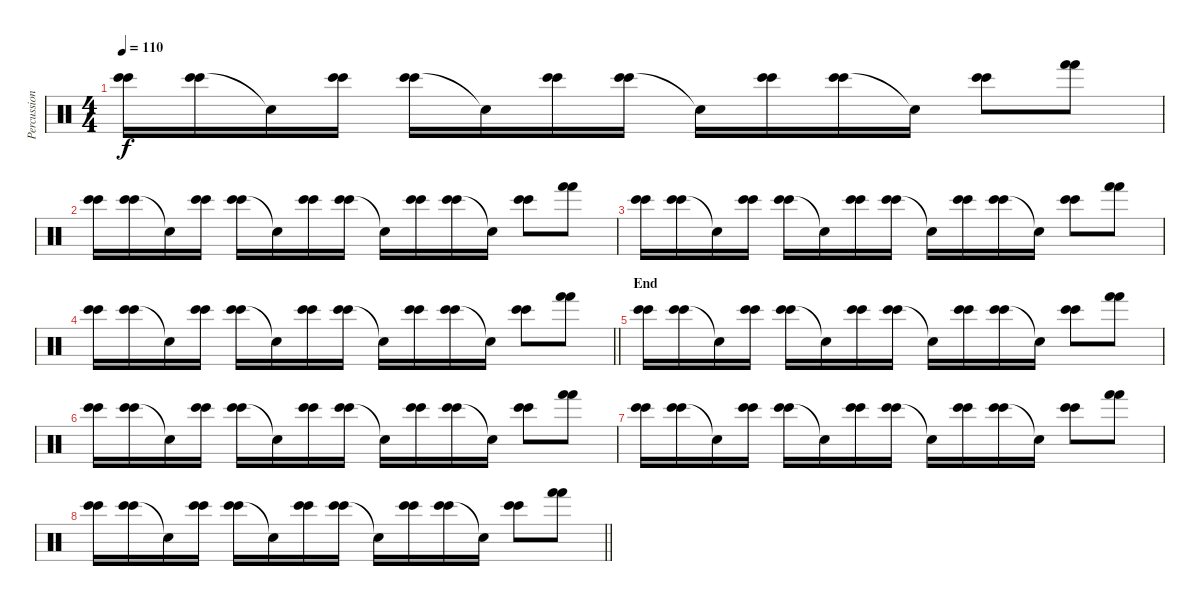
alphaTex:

\track ("Percussions" "Percussion") {instrument percussion}
\staff {score}
\articulation defaults
\ts (4 4)
\section ("" "")
\tempo 110
\clef neutral
\ks c
("Bongo High (hit)" "Bongo High (hit)").16{dy f} ("Bongo High (hit)" "Bongo High (hit)").16 "Snare (hit)"{t}.16 ("Bongo High (hit)" "Bongo High (hit)").16 ("Bongo High (hit)" "Bongo High (hit)").16 "Snare (hit)"{t}.16 ("Bongo High (hit)" "Bongo High (hit)").16 ("Bongo High (hit)" "Bongo High (hit)").16 "Snare (hit)"{t}.16 ("Bongo High (hit)" "Bongo High (hit)").16 ("Bongo High (hit)" "Bongo High (hit)").16 "Snare (hit)"{t}.16 ("Bongo High (hit)" "Bongo High (hit)").8 ("Hand (hit)" "Hand (hit)").8 |
("Bongo High (hit)" "Bongo High (hit)").16 ("Bongo High (hit)" "Bongo High (hit)").16 "Snare (hit)"{t}.16 ("Bongo High (hit)" "Bongo High (hit)").16 ("Bongo High (hit)" "Bongo High (hit)").16 "Snare (hit)"{t}.16 ("Bongo High (hit)" "Bongo High (hit)").16 ("Bongo High (hit)" "Bongo High (hit)").16 "Snare (hit)"{t}.16 ("Bongo High (hit)" "Bongo High (hit)").16 ("Bongo High (hit)" "Bongo High (hit)").16 "Snare (hit)"{t}.16 ("Bongo High (hit)" "Bongo High (hit)").8 ("Hand (hit)" "Hand (hit)").8 |
("Bongo High (hit)" "Bongo High (hit)").16 ("Bongo High (hit)" "Bongo High (hit)").16 "Snare (hit)"{t}.16 ("Bongo High (hit)" "Bongo High (hit)").16 ("Bongo High (hit)" "Bongo High (hit)").16 "Snare (hit)"{t}.16 ("Bongo High (hit)" "Bongo High (hit)").16 ("Bongo High (hit)" "Bongo High (hit)").16 "Snare (hit)"{t}.16 ("Bongo High (hit)" "Bongo High (hit)").16 ("Bongo High (hit)" "Bongo High (hit)").16 "Snare (hit)"{t}.16 ("Bongo High (hit)" "Bongo High (hit)").8 ("Hand (hit)" "Hand (hit)").8 |
\barLineRight lightlight
("Bongo High (hit)" "Bongo High (hit)").16 ("Bongo High (hit)" "Bongo High (hit)").16 "Snare (hit)"{t}.16 ("Bongo High (hit)" "Bongo High (hit)").16 ("Bongo High (hit)" "Bongo High (hit)").16 "Snare (hit)"{t}.16 ("Bongo High (hit)" "Bongo High (hit)").16 ("Bongo High (hit)" "Bongo High (hit)").16 "Snare (hit)"{t}.16 ("Bongo High (hit)" "Bongo High (hit)").16 ("Bongo High (hit)" "Bongo High (hit)").16 "Snare (hit)"{t}.16 ("Bongo High (hit)" "Bongo High (hit)").8 ("Hand (hit)" "Hand (hit)").8 |
\section ("" "End")
("Bongo High (hit)" "Bongo High (hit)").16 ("Bongo High (hit)" "Bongo High (hit)").16 "Snare (hit)"{t}.16 ("Bongo High (hit)" "Bongo High (hit)").16 ("Bongo High (hit)" "Bongo High (hit)").16 "Snare (hit)"{t}.16 ("Bongo High (hit)" "Bongo High (hit)").16 ("Bongo High (hit)" "Bongo High (hit)").16 "Snare (hit)"{t}.16 ("Bongo High (hit)" "Bongo High (hit)").16 ("Bongo High (hit)" "Bongo High (hit)").16 "Snare (hit)"{t}.16 ("Bongo High (hit)" "Bongo High (hit)").8 ("Hand (hit)" "Hand (hit)").8 |
("Bongo High (hit)" "Bongo High (hit)").16 ("Bongo High (hit)" "Bongo High (hit)").16 "Snare (hit)"{t}.16 ("Bongo High (hit)" "Bongo High (hit)").16 ("Bongo High (hit)" "Bongo High (hit)").16 "Snare (hit)"{t}.16 ("Bongo High (hit)" "Bongo High (hit)").16 ("Bongo High (hit)" "Bongo High (hit)").16 "Snare (hit)"{t}.16 ("Bongo High (hit)" "Bongo High (hit)").16 ("Bongo High (hit)" "Bongo High (hit)").16 "Snare (hit)"{t}.16 ("Bongo High (hit)" "Bongo High (hit)").8 ("Hand (hit)" "Hand (hit)").8 |
("Bongo High (hit)" "Bongo High (hit)").16 ("Bongo High (hit)" "Bongo High (hit)").16 "Snare (hit)"{t}.16 ("Bongo High (hit)" "Bongo High (hit)").16 ("Bongo High (hit)" "Bongo High (hit)").16 "Snare (hit)"{t}.16 ("Bongo High (hit)" "Bongo High (hit)").16 ("Bongo High (hit)" "Bongo High (hit)").16 "Snare (hit)"{t}.16 ("Bongo High (hit)" "Bongo High (hit)").16 ("Bongo High (hit)" "Bongo High (hit)").16 "Snare (hit)"{t}.16 ("Bongo High (hit)" "Bongo High (hit)").8 ("Hand (hit)" "Hand (hit)").8 |
\barLineRight lightlight
("Bongo High (hit)" "Bongo High (hit)").16 ("Bongo High (hit)" "Bongo High (hit)").16 "Snare (hit)"{t}.16 ("Bongo High (hit)" "Bongo High (hit)").16 ("Bongo High (hit)" "Bongo High (hit)").16 "Snare (hit)"{t}.16 ("Bongo High (hit)" "Bongo High (hit)").16 ("Bongo High (hit)" "Bongo High (hit)").16 "Snare (hit)"{t}.16 ("Bongo High (hit)" "Bongo High (hit)").16 ("Bongo High (hit)" "Bongo High (hit)").16 "Snare (hit)"{t}.16 ("Bongo High (hit)" "Bongo High (hit)").8 ("Hand (hit)" "Hand (hit)").8
